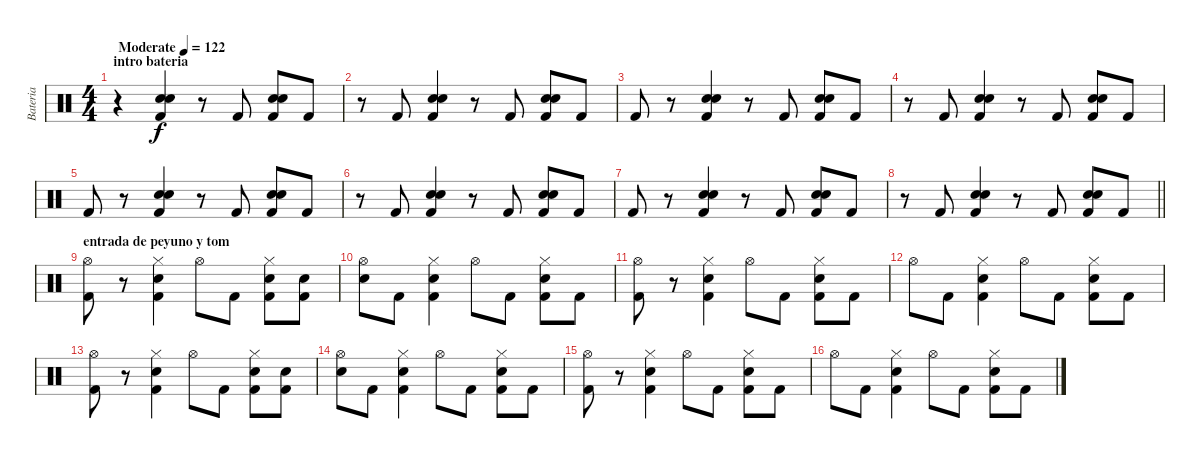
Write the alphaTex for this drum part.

\track ("Bateria" "Bateria") {instrument percussion}
\staff {score}
\articulation defaults
\ts (4 4)
\section ("" "intro bateria")
\tempo (122 "Moderate")
\clef neutral
\ks c
r.4{dy f} ("Kick (hit) 2" "Snare (hit) 2" "Snare (hit) 2").4 r.8 "Kick (hit) 2".8 ("Kick (hit) 2" "Snare (hit) 2" "Snare (hit) 2").8 "Kick (hit) 2".8 |
r.8 "Kick (hit) 2".8 ("Kick (hit) 2" "Snare (hit) 2" "Snare (hit) 2").4 r.8 "Kick (hit) 2".8 ("Kick (hit) 2" "Snare (hit) 2" "Snare (hit) 2").8 "Kick (hit) 2".8 |
"Kick (hit) 2".8 r.8 ("Kick (hit) 2" "Snare (hit) 2" "Snare (hit) 2").4 r.8 "Kick (hit) 2".8 ("Kick (hit) 2" "Snare (hit) 2" "Snare (hit) 2").8 "Kick (hit) 2".8 |
r.8 "Kick (hit) 2".8 ("Kick (hit) 2" "Snare (hit) 2" "Snare (hit) 2").4 r.8 "Kick (hit) 2".8 ("Kick (hit) 2" "Snare (hit) 2" "Snare (hit) 2").8 "Kick (hit) 2".8 |
"Kick (hit) 2".8 r.8 ("Kick (hit) 2" "Snare (hit) 2" "Snare (hit) 2").4 r.8 "Kick (hit) 2".8 ("Kick (hit) 2" "Snare (hit) 2" "Snare (hit) 2").8 "Kick (hit) 2".8 |
r.8 "Kick (hit) 2".8 ("Kick (hit) 2" "Snare (hit) 2" "Snare (hit) 2").4 r.8 "Kick (hit) 2".8 ("Kick (hit) 2" "Snare (hit) 2" "Snare (hit) 2").8 "Kick (hit) 2".8 |
"Kick (hit) 2".8 r.8 ("Kick (hit) 2" "Snare (hit) 2" "Snare (hit) 2").4 r.8 "Kick (hit) 2".8 ("Kick (hit) 2" "Snare (hit) 2" "Snare (hit) 2").8 "Kick (hit) 2".8 |
\barLineRight lightlight
r.8 "Kick (hit) 2".8 ("Kick (hit) 2" "Snare (hit) 2" "Snare (hit) 2").4 r.8 "Kick (hit) 2".8 ("Kick (hit) 2" "Snare (hit) 2" "Snare (hit) 2").8 "Kick (hit) 2".8 |
\section ("" "entrada de peyuno y tom")
("Kick (hit) 2" "Hi-Hat (open)").8 r.8 ("Kick (hit) 2" "Snare (hit) 2" "Hi-Hat (closed)").4 "Hi-Hat (open)".8 "Kick (hit) 2".8 ("Kick (hit) 2" "Snare (hit) 2" "Hi-Hat (closed)").8 ("Kick (hit) 2" "Snare (hit)").8 |
("Hi-Hat (open)" "Snare (hit)").8 "Kick (hit) 2".8 ("Kick (hit) 2" "Snare (hit) 2" "Hi-Hat (closed)").4 "Hi-Hat (open)".8 "Kick (hit) 2".8 ("Kick (hit) 2" "Snare (hit) 2" "Hi-Hat (closed)").8 "Kick (hit) 2".8 |
("Kick (hit) 2" "Hi-Hat (open)").8 r.8 ("Kick (hit) 2" "Snare (hit) 2" "Hi-Hat (closed)").4 "Hi-Hat (open)".8 "Kick (hit) 2".8 ("Kick (hit) 2" "Snare (hit) 2" "Hi-Hat (closed)").8 "Kick (hit) 2".8 |
"Hi-Hat (open)".8 "Kick (hit) 2".8 ("Kick (hit) 2" "Snare (hit) 2" "Hi-Hat (closed)").4 "Hi-Hat (open)".8 "Kick (hit) 2".8 ("Kick (hit) 2" "Snare (hit) 2" "Hi-Hat (closed)").8 "Kick (hit) 2".8 |
("Kick (hit) 2" "Hi-Hat (open)").8 r.8 ("Kick (hit) 2" "Snare (hit) 2" "Hi-Hat (closed)").4 "Hi-Hat (open)".8 "Kick (hit) 2".8 ("Kick (hit) 2" "Snare (hit) 2" "Hi-Hat (closed)").8 ("Kick (hit) 2" "Snare (hit)").8 |
("Hi-Hat (open)" "Snare (hit)").8 "Kick (hit) 2".8 ("Kick (hit) 2" "Snare (hit) 2" "Hi-Hat (closed)").4 "Hi-Hat (open)".8 "Kick (hit) 2".8 ("Kick (hit) 2" "Snare (hit) 2" "Hi-Hat (closed)").8 "Kick (hit) 2".8 |
("Kick (hit) 2" "Hi-Hat (open)").8 r.8 ("Kick (hit) 2" "Snare (hit) 2" "Hi-Hat (closed)").4 "Hi-Hat (open)".8 "Kick (hit) 2".8 ("Kick (hit) 2" "Snare (hit) 2" "Hi-Hat (closed)").8 "Kick (hit) 2".8 |
"Hi-Hat (open)".8 "Kick (hit) 2".8 ("Kick (hit) 2" "Snare (hit) 2" "Hi-Hat (closed)").4 "Hi-Hat (open)".8 "Kick (hit) 2".8 ("Kick (hit) 2" "Snare (hit) 2" "Hi-Hat (closed)").8 "Kick (hit) 2".8
